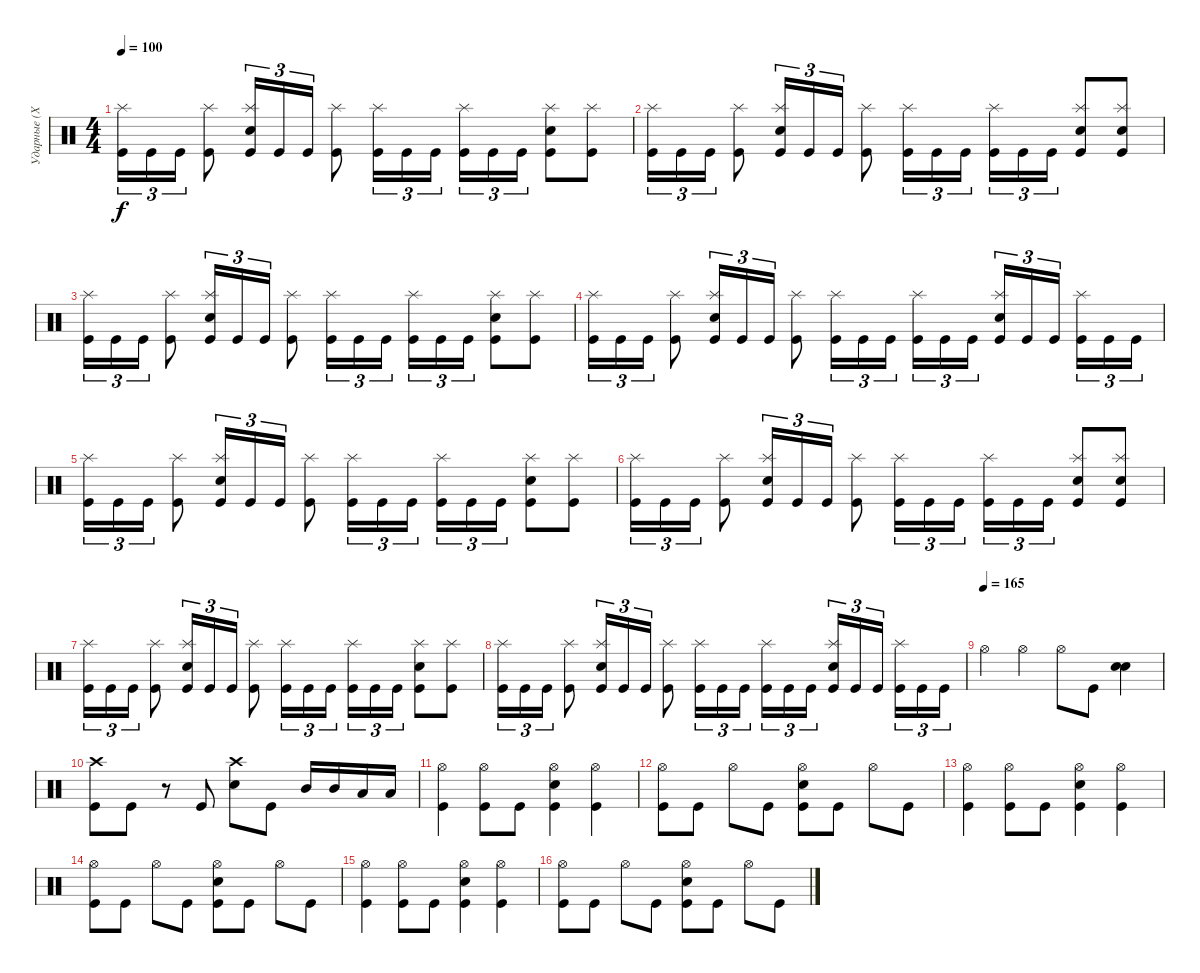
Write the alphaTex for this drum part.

\track ("Ударные (Хеллхаммер)" "Ударные (Х") {instrument percussion}
\staff {score}
\articulation defaults
\ts (4 4)
\tempo 100
\clef neutral
\ks c
("Kick (hit)" "Splash (hit)").16{tu (3 2) dy f} "Kick (hit)".16{tu (3 2)} "Kick (hit)".16{tu (3 2)} ("Kick (hit)" "Splash (hit)").8 ("Kick (hit)" "Splash (hit)" "Electric Snare (hit)").16{tu (3 2)} "Kick (hit)".16{tu (3 2)} "Kick (hit)".16{tu (3 2)} ("Kick (hit)" "Splash (hit)").8 ("Kick (hit)" "Splash (hit)").16{tu (3 2)} "Kick (hit)".16{tu (3 2)} "Kick (hit)".16{tu (3 2) beam splitsecondary} ("Kick (hit)" "Splash (hit)").16{tu (3 2)} "Kick (hit)".16{tu (3 2)} "Kick (hit)".16{tu (3 2)} ("Kick (hit)" "Electric Snare (hit)" "Splash (hit)").8 ("Kick (hit)" "Splash (hit)").8 |
("Kick (hit)" "Splash (hit)").16{tu (3 2)} "Kick (hit)".16{tu (3 2)} "Kick (hit)".16{tu (3 2)} ("Kick (hit)" "Splash (hit)").8 ("Kick (hit)" "Splash (hit)" "Electric Snare (hit)").16{tu (3 2)} "Kick (hit)".16{tu (3 2)} "Kick (hit)".16{tu (3 2)} ("Kick (hit)" "Splash (hit)").8 ("Kick (hit)" "Splash (hit)").16{tu (3 2)} "Kick (hit)".16{tu (3 2)} "Kick (hit)".16{tu (3 2) beam splitsecondary} ("Kick (hit)" "Splash (hit)").16{tu (3 2)} "Kick (hit)".16{tu (3 2)} "Kick (hit)".16{tu (3 2)} ("Kick (hit)" "Electric Snare (hit)" "Splash (hit)").8 ("Kick (hit)" "Splash (hit)" "Electric Snare (hit)").8 |
("Kick (hit)" "Splash (hit)").16{tu (3 2)} "Kick (hit)".16{tu (3 2)} "Kick (hit)".16{tu (3 2)} ("Kick (hit)" "Splash (hit)").8 ("Kick (hit)" "Splash (hit)" "Electric Snare (hit)").16{tu (3 2)} "Kick (hit)".16{tu (3 2)} "Kick (hit)".16{tu (3 2)} ("Kick (hit)" "Splash (hit)").8 ("Kick (hit)" "Splash (hit)").16{tu (3 2)} "Kick (hit)".16{tu (3 2)} "Kick (hit)".16{tu (3 2) beam splitsecondary} ("Kick (hit)" "Splash (hit)").16{tu (3 2)} "Kick (hit)".16{tu (3 2)} "Kick (hit)".16{tu (3 2)} ("Kick (hit)" "Electric Snare (hit)" "Splash (hit)").8 ("Kick (hit)" "Splash (hit)").8 |
("Kick (hit)" "Splash (hit)").16{tu (3 2)} "Kick (hit)".16{tu (3 2)} "Kick (hit)".16{tu (3 2)} ("Kick (hit)" "Splash (hit)").8 ("Kick (hit)" "Splash (hit)" "Electric Snare (hit)").16{tu (3 2)} "Kick (hit)".16{tu (3 2)} "Kick (hit)".16{tu (3 2)} ("Kick (hit)" "Splash (hit)").8 ("Kick (hit)" "Splash (hit)").16{tu (3 2)} "Kick (hit)".16{tu (3 2)} "Kick (hit)".16{tu (3 2) beam splitsecondary} ("Kick (hit)" "Splash (hit)").16{tu (3 2)} "Kick (hit)".16{tu (3 2)} "Kick (hit)".16{tu (3 2)} ("Kick (hit)" "Splash (hit)" "Electric Snare (hit)").16{tu (3 2)} "Kick (hit)".16{tu (3 2)} "Kick (hit)".16{tu (3 2) beam splitsecondary} ("Kick (hit)" "Splash (hit)").16{tu (3 2)} "Kick (hit)".16{tu (3 2)} "Kick (hit)".16{tu (3 2)} |
("Kick (hit)" "Splash (hit)").16{tu (3 2)} "Kick (hit)".16{tu (3 2)} "Kick (hit)".16{tu (3 2)} ("Kick (hit)" "Splash (hit)").8 ("Kick (hit)" "Splash (hit)" "Electric Snare (hit)").16{tu (3 2)} "Kick (hit)".16{tu (3 2)} "Kick (hit)".16{tu (3 2)} ("Kick (hit)" "Splash (hit)").8 ("Kick (hit)" "Splash (hit)").16{tu (3 2)} "Kick (hit)".16{tu (3 2)} "Kick (hit)".16{tu (3 2) beam splitsecondary} ("Kick (hit)" "Splash (hit)").16{tu (3 2)} "Kick (hit)".16{tu (3 2)} "Kick (hit)".16{tu (3 2)} ("Kick (hit)" "Electric Snare (hit)" "Splash (hit)").8 ("Kick (hit)" "Splash (hit)").8 |
("Kick (hit)" "Splash (hit)").16{tu (3 2)} "Kick (hit)".16{tu (3 2)} "Kick (hit)".16{tu (3 2)} ("Kick (hit)" "Splash (hit)").8 ("Kick (hit)" "Splash (hit)" "Electric Snare (hit)").16{tu (3 2)} "Kick (hit)".16{tu (3 2)} "Kick (hit)".16{tu (3 2)} ("Kick (hit)" "Splash (hit)").8 ("Kick (hit)" "Splash (hit)").16{tu (3 2)} "Kick (hit)".16{tu (3 2)} "Kick (hit)".16{tu (3 2) beam splitsecondary} ("Kick (hit)" "Splash (hit)").16{tu (3 2)} "Kick (hit)".16{tu (3 2)} "Kick (hit)".16{tu (3 2)} ("Kick (hit)" "Electric Snare (hit)" "Splash (hit)").8 ("Kick (hit)" "Splash (hit)" "Electric Snare (hit)").8 |
("Kick (hit)" "Splash (hit)").16{tu (3 2)} "Kick (hit)".16{tu (3 2)} "Kick (hit)".16{tu (3 2)} ("Kick (hit)" "Splash (hit)").8 ("Kick (hit)" "Splash (hit)" "Electric Snare (hit)").16{tu (3 2)} "Kick (hit)".16{tu (3 2)} "Kick (hit)".16{tu (3 2)} ("Kick (hit)" "Splash (hit)").8 ("Kick (hit)" "Splash (hit)").16{tu (3 2)} "Kick (hit)".16{tu (3 2)} "Kick (hit)".16{tu (3 2) beam splitsecondary} ("Kick (hit)" "Splash (hit)").16{tu (3 2)} "Kick (hit)".16{tu (3 2)} "Kick (hit)".16{tu (3 2)} ("Kick (hit)" "Electric Snare (hit)" "Splash (hit)").8 ("Kick (hit)" "Splash (hit)").8 |
("Kick (hit)" "Splash (hit)").16{tu (3 2)} "Kick (hit)".16{tu (3 2)} "Kick (hit)".16{tu (3 2)} ("Kick (hit)" "Splash (hit)").8 ("Kick (hit)" "Splash (hit)" "Electric Snare (hit)").16{tu (3 2)} "Kick (hit)".16{tu (3 2)} "Kick (hit)".16{tu (3 2)} ("Kick (hit)" "Splash (hit)").8 ("Kick (hit)" "Splash (hit)").16{tu (3 2)} "Kick (hit)".16{tu (3 2)} "Kick (hit)".16{tu (3 2) beam splitsecondary} ("Kick (hit)" "Splash (hit)").16{tu (3 2)} "Kick (hit)".16{tu (3 2)} "Kick (hit)".16{tu (3 2)} ("Kick (hit)" "Splash (hit)" "Electric Snare (hit)").16{tu (3 2)} "Kick (hit)".16{tu (3 2)} "Kick (hit)".16{tu (3 2) beam splitsecondary} ("Kick (hit)" "Splash (hit)").16{tu (3 2)} "Kick (hit)".16{tu (3 2)} "Kick (hit)".16{tu (3 2)} |
\tempo (165)
"Hi-Hat (open)".4 "Hi-Hat (open)".4 "Hi-Hat (open)".8 "Kick (hit)".8 ("Electric Snare (hit)" "Electric Snare (hit)").4 |
("Crash high (hit)" "Kick (hit)").8 "Kick (hit)".8 r.8 "Kick (hit)".8 ("Electric Snare (hit)" "Crash high (hit)").8 "Kick (hit)".8 "Mid Tom (hit)".16 "Mid Tom (hit)".16 "Low Tom (hit)".16 "Low Tom (hit)".16 |
("Kick (hit)" "Hi-Hat (open)").4 ("Hi-Hat (open)" "Kick (hit)").8 "Kick (hit)".8 ("Electric Snare (hit)" "Hi-Hat (open)" "Kick (hit)").4 ("Kick (hit)" "Hi-Hat (open)").4 |
("Kick (hit)" "Hi-Hat (open)").8 "Kick (hit)".8 "Hi-Hat (open)".8 "Kick (hit)".8 ("Kick (hit)" "Hi-Hat (open)" "Electric Snare (hit)").8 "Kick (hit)".8 "Hi-Hat (open)".8 "Kick (hit)".8 |
("Kick (hit)" "Hi-Hat (open)").4 ("Hi-Hat (open)" "Kick (hit)").8 "Kick (hit)".8 ("Electric Snare (hit)" "Hi-Hat (open)" "Kick (hit)").4 ("Kick (hit)" "Hi-Hat (open)").4 |
("Kick (hit)" "Hi-Hat (open)").8 "Kick (hit)".8 "Hi-Hat (open)".8 "Kick (hit)".8 ("Kick (hit)" "Hi-Hat (open)" "Electric Snare (hit)").8 "Kick (hit)".8 "Hi-Hat (open)".8 "Kick (hit)".8 |
("Kick (hit)" "Hi-Hat (open)").4 ("Hi-Hat (open)" "Kick (hit)").8 "Kick (hit)".8 ("Electric Snare (hit)" "Hi-Hat (open)" "Kick (hit)").4 ("Kick (hit)" "Hi-Hat (open)").4 |
("Kick (hit)" "Hi-Hat (open)").8 "Kick (hit)".8 "Hi-Hat (open)".8 "Kick (hit)".8 ("Kick (hit)" "Hi-Hat (open)" "Electric Snare (hit)").8 "Kick (hit)".8 "Hi-Hat (open)".8 "Kick (hit)".8
